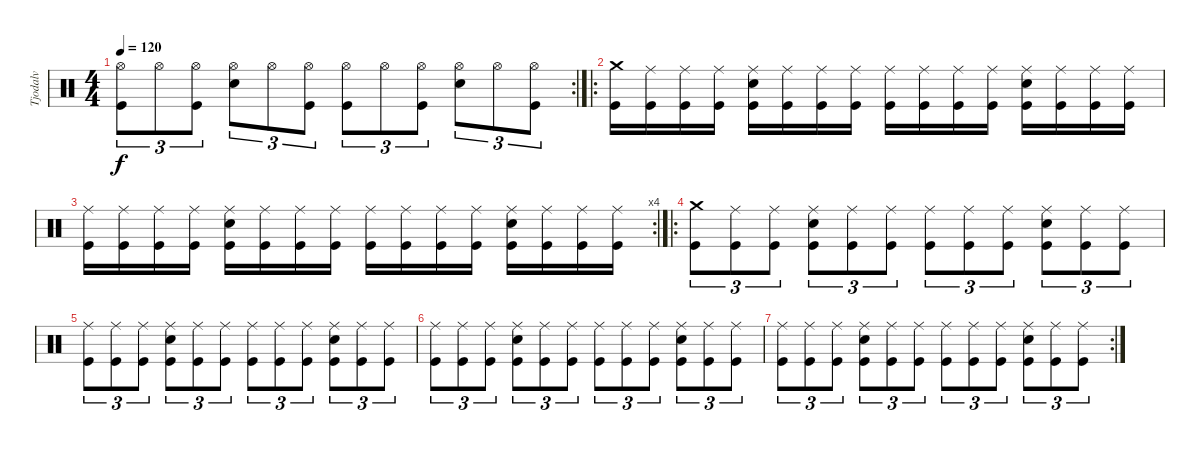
\track ("Tjodalv" "Tjodalv") {instrument percussion}
\staff {score}
\articulation defaults
\rc 2
\ts (4 4)
\tempo 120
\clef neutral
\ks c
("Hi-Hat (open)" "Kick (hit)").8{tu (3 2) dy f} "Hi-Hat (open)".8{tu (3 2)} ("Hi-Hat (open)" "Kick (hit)").8{tu (3 2)} ("Snare (hit) 2" "Hi-Hat (open)").8{tu (3 2)} "Hi-Hat (open)".8{tu (3 2)} ("Hi-Hat (open)" "Kick (hit)").8{tu (3 2)} ("Hi-Hat (open)" "Kick (hit)").8{tu (3 2)} "Hi-Hat (open)".8{tu (3 2)} ("Hi-Hat (open)" "Kick (hit)").8{tu (3 2)} ("Snare (hit) 2" "Hi-Hat (open)").8{tu (3 2)} "Hi-Hat (open)".8{tu (3 2)} ("Hi-Hat (open)" "Kick (hit)").8{tu (3 2)} |
\ro
("Crash medium (hit)" "Kick (hit)").16 ("Ride (middle)" "Kick (hit)").16 ("Ride (middle)" "Kick (hit)").16 ("Ride (middle)" "Kick (hit)").16 ("Snare (hit) 2" "Ride (middle)" "Kick (hit)").16 ("Ride (middle)" "Kick (hit)").16 ("Ride (middle)" "Kick (hit)").16 ("Ride (middle)" "Kick (hit)").16 ("Ride (middle)" "Kick (hit)").16 ("Ride (middle)" "Kick (hit)").16 ("Ride (middle)" "Kick (hit)").16 ("Ride (middle)" "Kick (hit)").16 ("Snare (hit) 2" "Ride (middle)" "Kick (hit)").16 ("Ride (middle)" "Kick (hit)").16 ("Ride (middle)" "Kick (hit)").16 ("Ride (middle)" "Kick (hit)").16 |
\rc 4
("Ride (middle)" "Kick (hit)").16 ("Ride (middle)" "Kick (hit)").16 ("Ride (middle)" "Kick (hit)").16 ("Ride (middle)" "Kick (hit)").16 ("Snare (hit) 2" "Ride (middle)" "Kick (hit)").16 ("Ride (middle)" "Kick (hit)").16 ("Ride (middle)" "Kick (hit)").16 ("Ride (middle)" "Kick (hit)").16 ("Ride (middle)" "Kick (hit)").16 ("Ride (middle)" "Kick (hit)").16 ("Ride (middle)" "Kick (hit)").16 ("Ride (middle)" "Kick (hit)").16 ("Snare (hit) 2" "Ride (middle)" "Kick (hit)").16 ("Ride (middle)" "Kick (hit)").16 ("Ride (middle)" "Kick (hit)").16 ("Ride (middle)" "Kick (hit)").16 |
\ro
("Crash medium (hit)" "Kick (hit)").8{tu (3 2)} ("Ride (middle)" "Kick (hit)").8{tu (3 2)} ("Ride (middle)" "Kick (hit)").8{tu (3 2)} ("Snare (hit) 2" "Ride (middle)" "Kick (hit)").8{tu (3 2)} ("Ride (middle)" "Kick (hit)").8{tu (3 2)} ("Ride (middle)" "Kick (hit)").8{tu (3 2)} ("Ride (middle)" "Kick (hit)").8{tu (3 2)} ("Ride (middle)" "Kick (hit)").8{tu (3 2)} ("Ride (middle)" "Kick (hit)").8{tu (3 2)} ("Snare (hit) 2" "Ride (middle)" "Kick (hit)").8{tu (3 2)} ("Ride (middle)" "Kick (hit)").8{tu (3 2)} ("Ride (middle)" "Kick (hit)").8{tu (3 2)} |
("Ride (middle)" "Kick (hit)").8{tu (3 2)} ("Ride (middle)" "Kick (hit)").8{tu (3 2)} ("Ride (middle)" "Kick (hit)").8{tu (3 2)} ("Snare (hit) 2" "Ride (middle)" "Kick (hit)").8{tu (3 2)} ("Ride (middle)" "Kick (hit)").8{tu (3 2)} ("Ride (middle)" "Kick (hit)").8{tu (3 2)} ("Ride (middle)" "Kick (hit)").8{tu (3 2)} ("Ride (middle)" "Kick (hit)").8{tu (3 2)} ("Ride (middle)" "Kick (hit)").8{tu (3 2)} ("Snare (hit) 2" "Ride (middle)" "Kick (hit)").8{tu (3 2)} ("Ride (middle)" "Kick (hit)").8{tu (3 2)} ("Ride (middle)" "Kick (hit)").8{tu (3 2)} |
("Ride (middle)" "Kick (hit)").8{tu (3 2)} ("Ride (middle)" "Kick (hit)").8{tu (3 2)} ("Ride (middle)" "Kick (hit)").8{tu (3 2)} ("Snare (hit) 2" "Ride (middle)" "Kick (hit)").8{tu (3 2)} ("Ride (middle)" "Kick (hit)").8{tu (3 2)} ("Ride (middle)" "Kick (hit)").8{tu (3 2)} ("Ride (middle)" "Kick (hit)").8{tu (3 2)} ("Ride (middle)" "Kick (hit)").8{tu (3 2)} ("Ride (middle)" "Kick (hit)").8{tu (3 2)} ("Snare (hit) 2" "Ride (middle)" "Kick (hit)").8{tu (3 2)} ("Ride (middle)" "Kick (hit)").8{tu (3 2)} ("Ride (middle)" "Kick (hit)").8{tu (3 2)} |
\rc 2
("Ride (middle)" "Kick (hit)").8{tu (3 2)} ("Ride (middle)" "Kick (hit)").8{tu (3 2)} ("Ride (middle)" "Kick (hit)").8{tu (3 2)} ("Snare (hit) 2" "Ride (middle)" "Kick (hit)").8{tu (3 2)} ("Ride (middle)" "Kick (hit)").8{tu (3 2)} ("Ride (middle)" "Kick (hit)").8{tu (3 2)} ("Ride (middle)" "Kick (hit)").8{tu (3 2)} ("Ride (middle)" "Kick (hit)").8{tu (3 2)} ("Ride (middle)" "Kick (hit)").8{tu (3 2)} ("Snare (hit) 2" "Ride (middle)" "Kick (hit)").8{tu (3 2)} ("Ride (middle)" "Kick (hit)").8{tu (3 2)} ("Ride (middle)" "Kick (hit)").8{tu (3 2)}
